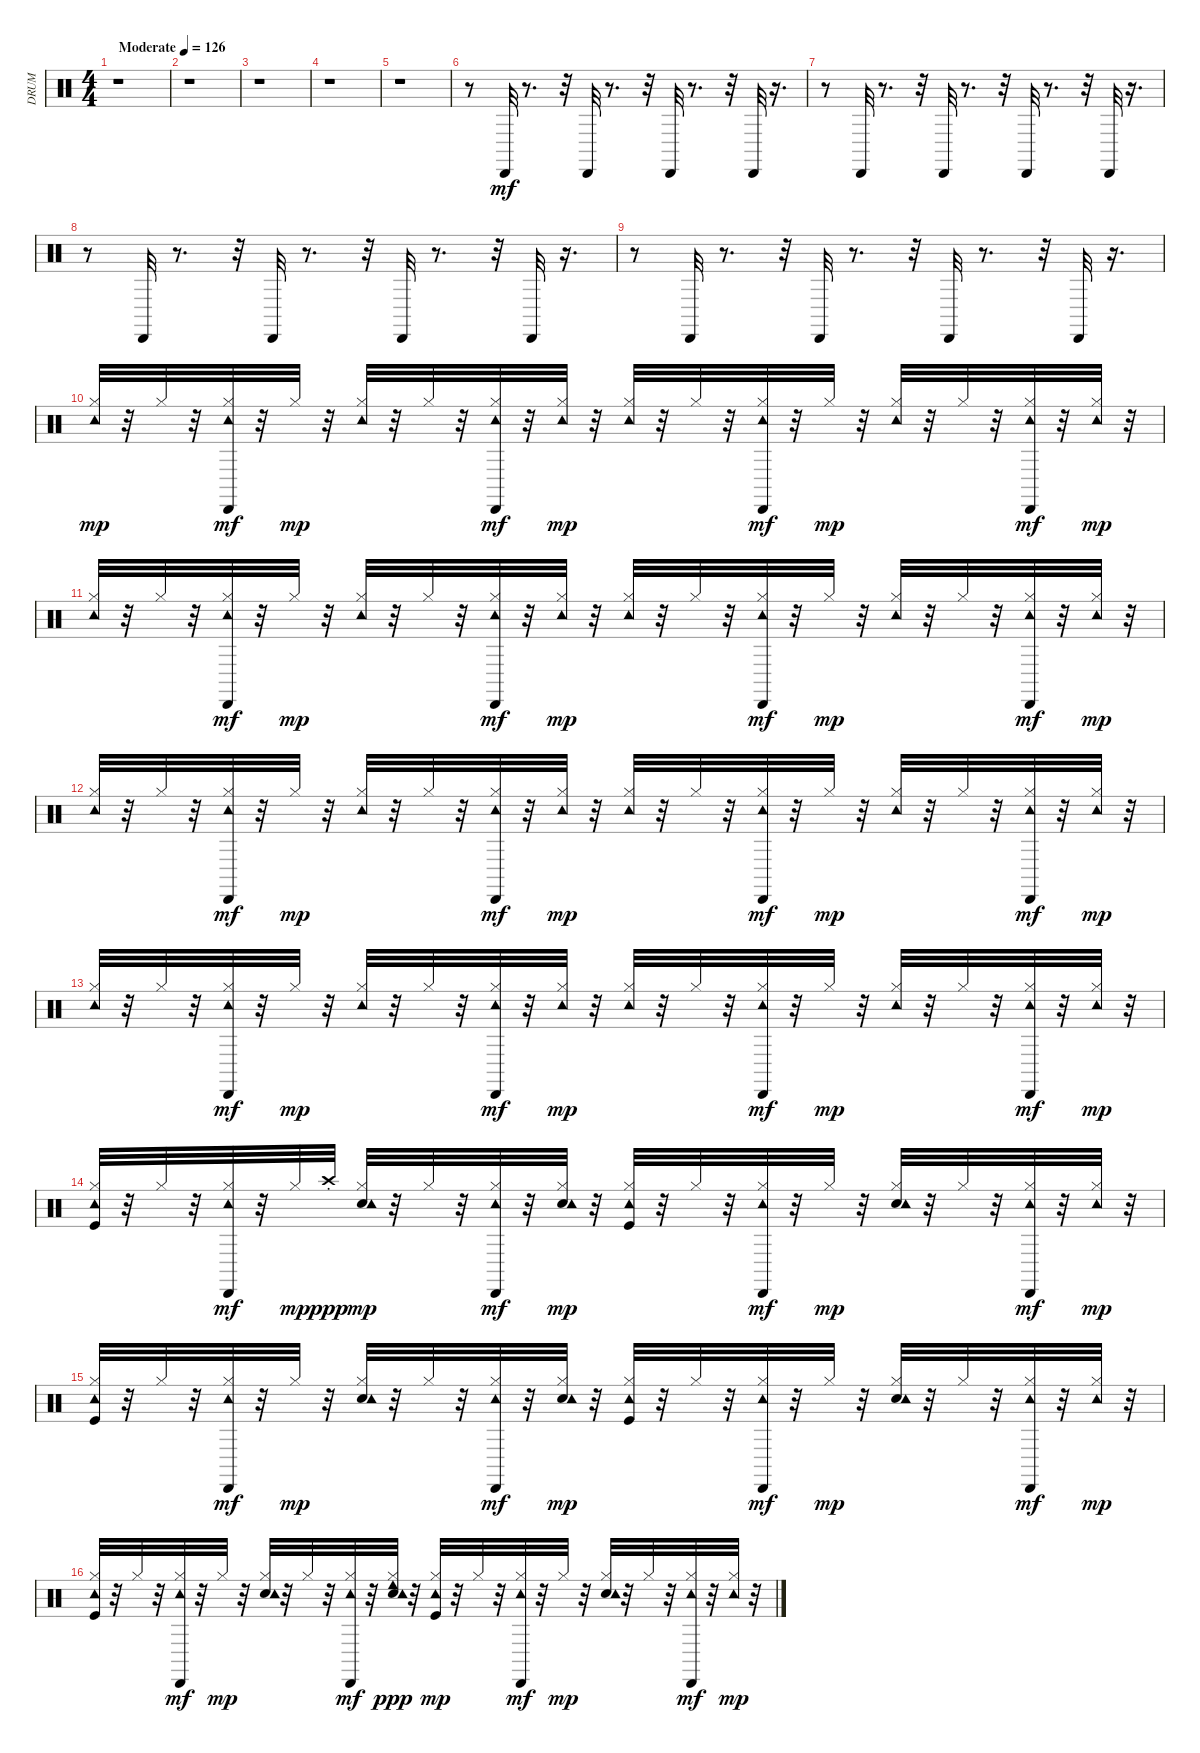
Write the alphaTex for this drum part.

\track ("DRUM" "DRUM") {instrument percussion}
\staff {score}
\articulation defaults
\ts (4 4)
\tempo (126 "Moderate")
\clef neutral
\ks c
r.1{dy mf} |
r.1 |
r.1 |
r.1 |
r.1 |
r.8 "Cabasa (hit)".32 r.8{d} r.32 "Cabasa (hit)".32 r.8{d} r.32 "Cabasa (hit)".32 r.8{d} r.32 "Cabasa (hit)".32 r.16{d} |
r.8 "Cabasa (hit)".32 r.8{d} r.32 "Cabasa (hit)".32 r.8{d} r.32 "Cabasa (hit)".32 r.8{d} r.32 "Cabasa (hit)".32 r.16{d} |
r.8 "Cabasa (hit)".32 r.8{d} r.32 "Cabasa (hit)".32 r.8{d} r.32 "Cabasa (hit)".32 r.8{d} r.32 "Cabasa (hit)".32 r.16{d} |
r.8 "Cabasa (hit)".32 r.8{d} r.32 "Cabasa (hit)".32 r.8{d} r.32 "Cabasa (hit)".32 r.8{d} r.32 "Cabasa (hit)".32 r.16{d} |
("Hi-Hat (closed)" "Tambourine (hit)").32{dy mp} r.32 "Hi-Hat (closed)".32 r.32 ("Hi-Hat (closed)" "Tambourine (hit)" "Cabasa (hit)").32{dy mf} r.32 "Hi-Hat (closed)".32{dy mp} r.32 ("Hi-Hat (closed)" "Tambourine (hit)").32 r.32 "Hi-Hat (closed)".32 r.32 ("Hi-Hat (closed)" "Tambourine (hit)" "Cabasa (hit)").32{dy mf} r.32 ("Hi-Hat (closed)" "Tambourine (hit)").32{dy mp} r.32 ("Hi-Hat (closed)" "Tambourine (hit)").32 r.32 "Hi-Hat (closed)".32 r.32 ("Hi-Hat (closed)" "Tambourine (hit)" "Cabasa (hit)").32{dy mf} r.32 "Hi-Hat (closed)".32{dy mp} r.32 ("Hi-Hat (closed)" "Tambourine (hit)").32 r.32 "Hi-Hat (closed)".32 r.32 ("Hi-Hat (closed)" "Tambourine (hit)" "Cabasa (hit)").32{dy mf} r.32 ("Hi-Hat (closed)" "Tambourine (hit)").32{dy mp} r.32 |
("Hi-Hat (closed)" "Tambourine (hit)").32 r.32 "Hi-Hat (closed)".32 r.32 ("Hi-Hat (closed)" "Tambourine (hit)" "Cabasa (hit)").32{dy mf} r.32 "Hi-Hat (closed)".32{dy mp} r.32 ("Hi-Hat (closed)" "Tambourine (hit)").32 r.32 "Hi-Hat (closed)".32 r.32 ("Hi-Hat (closed)" "Tambourine (hit)" "Cabasa (hit)").32{dy mf} r.32 ("Hi-Hat (closed)" "Tambourine (hit)").32{dy mp} r.32 ("Hi-Hat (closed)" "Tambourine (hit)").32 r.32 "Hi-Hat (closed)".32 r.32 ("Hi-Hat (closed)" "Tambourine (hit)" "Cabasa (hit)").32{dy mf} r.32 "Hi-Hat (closed)".32{dy mp} r.32 ("Hi-Hat (closed)" "Tambourine (hit)").32 r.32 "Hi-Hat (closed)".32 r.32 ("Hi-Hat (closed)" "Tambourine (hit)" "Cabasa (hit)").32{dy mf} r.32 ("Hi-Hat (closed)" "Tambourine (hit)").32{dy mp} r.32 |
("Hi-Hat (closed)" "Tambourine (hit)").32 r.32 "Hi-Hat (closed)".32 r.32 ("Hi-Hat (closed)" "Tambourine (hit)" "Cabasa (hit)").32{dy mf} r.32 "Hi-Hat (closed)".32{dy mp} r.32 ("Hi-Hat (closed)" "Tambourine (hit)").32 r.32 "Hi-Hat (closed)".32 r.32 ("Hi-Hat (closed)" "Tambourine (hit)" "Cabasa (hit)").32{dy mf} r.32 ("Hi-Hat (closed)" "Tambourine (hit)").32{dy mp} r.32 ("Hi-Hat (closed)" "Tambourine (hit)").32 r.32 "Hi-Hat (closed)".32 r.32 ("Hi-Hat (closed)" "Tambourine (hit)" "Cabasa (hit)").32{dy mf} r.32 "Hi-Hat (closed)".32{dy mp} r.32 ("Hi-Hat (closed)" "Tambourine (hit)").32 r.32 "Hi-Hat (closed)".32 r.32 ("Hi-Hat (closed)" "Tambourine (hit)" "Cabasa (hit)").32{dy mf} r.32 ("Hi-Hat (closed)" "Tambourine (hit)").32{dy mp} r.32 |
("Hi-Hat (closed)" "Tambourine (hit)").32 r.32 "Hi-Hat (closed)".32 r.32 ("Hi-Hat (closed)" "Tambourine (hit)" "Cabasa (hit)").32{dy mf} r.32 "Hi-Hat (closed)".32{dy mp} r.32 ("Hi-Hat (closed)" "Tambourine (hit)").32 r.32 "Hi-Hat (closed)".32 r.32 ("Hi-Hat (closed)" "Tambourine (hit)" "Cabasa (hit)").32{dy mf} r.32 ("Hi-Hat (closed)" "Tambourine (hit)").32{dy mp} r.32 ("Hi-Hat (closed)" "Tambourine (hit)").32 r.32 "Hi-Hat (closed)".32 r.32 ("Hi-Hat (closed)" "Tambourine (hit)" "Cabasa (hit)").32{dy mf} r.32 "Hi-Hat (closed)".32{dy mp} r.32 ("Hi-Hat (closed)" "Tambourine (hit)").32 r.32 "Hi-Hat (closed)".32 r.32 ("Hi-Hat (closed)" "Tambourine (hit)" "Cabasa (hit)").32{dy mf} r.32 ("Hi-Hat (closed)" "Tambourine (hit)").32{dy mp} r.32 |
("Kick (hit)" "Hi-Hat (closed)" "Tambourine (hit)").32 r.32 "Hi-Hat (closed)".32 r.32 ("Hi-Hat (closed)" "Tambourine (hit)" "Cabasa (hit)").32{dy mf} r.32 "Hi-Hat (closed)".32{dy mp} "Crash high (choke)".32{dy ppp} ("Snare (hit) 2" "Hi-Hat (closed)" "Tambourine (hit)").32{dy mp} r.32 "Hi-Hat (closed)".32 r.32 ("Hi-Hat (closed)" "Tambourine (hit)" "Cabasa (hit)").32{dy mf} r.32 ("Snare (hit) 2" "Hi-Hat (closed)" "Tambourine (hit)").32{dy mp} r.32 ("Kick (hit)" "Hi-Hat (closed)" "Tambourine (hit)").32 r.32 "Hi-Hat (closed)".32 r.32 ("Hi-Hat (closed)" "Tambourine (hit)" "Cabasa (hit)").32{dy mf} r.32 "Hi-Hat (closed)".32{dy mp} r.32 ("Snare (hit) 2" "Hi-Hat (closed)" "Tambourine (hit)").32 r.32 "Hi-Hat (closed)".32 r.32 ("Hi-Hat (closed)" "Tambourine (hit)" "Cabasa (hit)").32{dy mf} r.32 ("Hi-Hat (closed)" "Tambourine (hit)").32{dy mp} r.32 |
("Kick (hit)" "Hi-Hat (closed)" "Tambourine (hit)").32 r.32 "Hi-Hat (closed)".32 r.32 ("Hi-Hat (closed)" "Tambourine (hit)" "Cabasa (hit)").32{dy mf} r.32 "Hi-Hat (closed)".32{dy mp} r.32 ("Snare (hit) 2" "Hi-Hat (closed)" "Tambourine (hit)").32 r.32 "Hi-Hat (closed)".32 r.32 ("Hi-Hat (closed)" "Tambourine (hit)" "Cabasa (hit)").32{dy mf} r.32 ("Snare (hit) 2" "Hi-Hat (closed)" "Tambourine (hit)").32{dy mp} r.32 ("Kick (hit)" "Hi-Hat (closed)" "Tambourine (hit)").32 r.32 "Hi-Hat (closed)".32 r.32 ("Hi-Hat (closed)" "Tambourine (hit)" "Cabasa (hit)").32{dy mf} r.32 "Hi-Hat (closed)".32{dy mp} r.32 ("Snare (hit) 2" "Hi-Hat (closed)" "Tambourine (hit)").32 r.32 "Hi-Hat (closed)".32 r.32 ("Hi-Hat (closed)" "Tambourine (hit)" "Cabasa (hit)").32{dy mf} r.32 ("Hi-Hat (closed)" "Tambourine (hit)").32{dy mp} r.32 |
("Kick (hit)" "Hi-Hat (closed)" "Tambourine (hit)").32 r.32 "Hi-Hat (closed)".32 r.32 ("Hi-Hat (closed)" "Tambourine (hit)" "Cabasa (hit)").32{dy mf} r.32 "Hi-Hat (closed)".32{dy mp} r.32 ("Snare (hit) 2" "Hi-Hat (closed)" "Tambourine (hit)").32 r.32 "Hi-Hat (closed)".32 r.32 ("Hi-Hat (closed)" "Tambourine (hit)" "Cabasa (hit)").32{dy mf} r.32 ("Snare (hit) 2" "Hi-Hat (closed)" "Tambourine (hit)" "Cowbell low (hit)").32{dy ppp} r.32 ("Kick (hit)" "Hi-Hat (closed)" "Tambourine (hit)").32{dy mp} r.32 "Hi-Hat (closed)".32 r.32 ("Hi-Hat (closed)" "Tambourine (hit)" "Cabasa (hit)").32{dy mf} r.32 "Hi-Hat (closed)".32{dy mp} r.32 ("Snare (hit) 2" "Hi-Hat (closed)" "Tambourine (hit)").32 r.32 "Hi-Hat (closed)".32 r.32 ("Hi-Hat (closed)" "Tambourine (hit)" "Cabasa (hit)").32{dy mf} r.32 ("Hi-Hat (closed)" "Tambourine (hit)").32{dy mp} r.32
